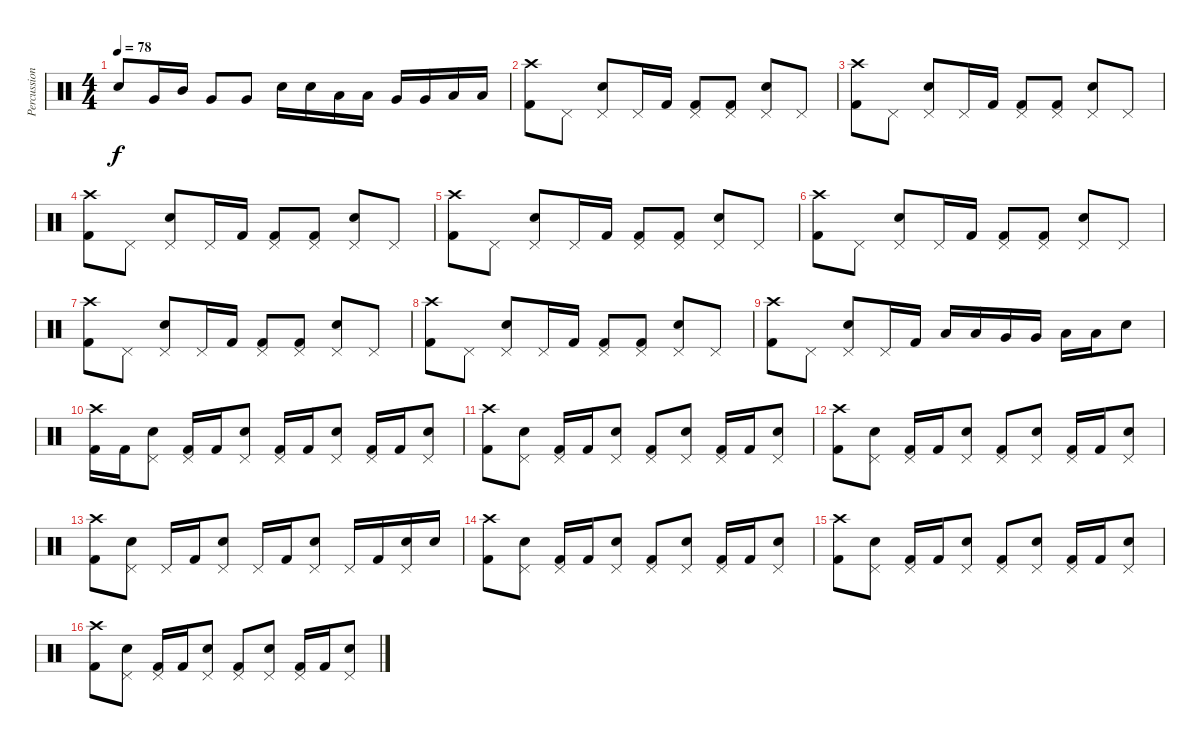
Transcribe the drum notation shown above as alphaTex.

\track ("Percussion" "Percussion") {instrument percussion}
\staff {score}
\articulation defaults
\ts (4 4)
\tempo 78
\clef neutral
\ks c "Snare (hit) 2".8{dy f} "Very Low Tom (hit)".16 "Mid Tom (hit)".16 "Very Low Tom (hit)".8 "Very Low Tom (hit)".8 "Snare (hit) 2".16 "Snare (hit) 2".16 "Low Tom (hit)".16 "Low Tom (hit)".16 "Very Low Tom (hit)".16 "Very Low Tom (hit)".16 "Low Floor Tom (hit)".16 "Low Floor Tom (hit)".16
|
("Crash high (hit)" "Kick (hit) 2").8 "Pedal Hi-Hat (hit)".8 ("Pedal Hi-Hat (hit)" "Snare (hit) 2").8 "Pedal Hi-Hat (hit)".16 "Kick (hit) 2".16 ("Pedal Hi-Hat (hit)" "Kick (hit) 2").8 ("Pedal Hi-Hat (hit)" "Kick (hit) 2").8 ("Pedal Hi-Hat (hit)" "Snare (hit) 2").8 "Pedal Hi-Hat (hit)".8 |
("Crash high (hit)" "Kick (hit) 2").8 "Pedal Hi-Hat (hit)".8 ("Pedal Hi-Hat (hit)" "Snare (hit) 2").8 "Pedal Hi-Hat (hit)".16 "Kick (hit) 2".16 ("Pedal Hi-Hat (hit)" "Kick (hit) 2").8 ("Pedal Hi-Hat (hit)" "Kick (hit) 2").8 ("Pedal Hi-Hat (hit)" "Snare (hit) 2").8 "Pedal Hi-Hat (hit)".8 |
("Crash high (hit)" "Kick (hit) 2").8 "Pedal Hi-Hat (hit)".8 ("Pedal Hi-Hat (hit)" "Snare (hit) 2").8 "Pedal Hi-Hat (hit)".16 "Kick (hit) 2".16 ("Pedal Hi-Hat (hit)" "Kick (hit) 2").8 ("Pedal Hi-Hat (hit)" "Kick (hit) 2").8 ("Pedal Hi-Hat (hit)" "Snare (hit) 2").8 "Pedal Hi-Hat (hit)".8 |
("Crash high (hit)" "Kick (hit) 2").8 "Pedal Hi-Hat (hit)".8 ("Pedal Hi-Hat (hit)" "Snare (hit) 2").8 "Pedal Hi-Hat (hit)".16 "Kick (hit) 2".16 ("Pedal Hi-Hat (hit)" "Kick (hit) 2").8 ("Pedal Hi-Hat (hit)" "Kick (hit) 2").8 ("Pedal Hi-Hat (hit)" "Snare (hit) 2").8 "Pedal Hi-Hat (hit)".8 |
("Crash high (hit)" "Kick (hit) 2").8 "Pedal Hi-Hat (hit)".8 ("Pedal Hi-Hat (hit)" "Snare (hit) 2").8 "Pedal Hi-Hat (hit)".16 "Kick (hit) 2".16 ("Pedal Hi-Hat (hit)" "Kick (hit) 2").8 ("Pedal Hi-Hat (hit)" "Kick (hit) 2").8 ("Pedal Hi-Hat (hit)" "Snare (hit) 2").8 "Pedal Hi-Hat (hit)".8 |
("Crash high (hit)" "Kick (hit) 2").8 "Pedal Hi-Hat (hit)".8 ("Pedal Hi-Hat (hit)" "Snare (hit) 2").8 "Pedal Hi-Hat (hit)".16 "Kick (hit) 2".16 ("Pedal Hi-Hat (hit)" "Kick (hit) 2").8 ("Pedal Hi-Hat (hit)" "Kick (hit) 2").8 ("Pedal Hi-Hat (hit)" "Snare (hit) 2").8 "Pedal Hi-Hat (hit)".8 |
("Crash high (hit)" "Kick (hit) 2").8 "Pedal Hi-Hat (hit)".8 ("Pedal Hi-Hat (hit)" "Snare (hit) 2").8 "Pedal Hi-Hat (hit)".16 "Kick (hit) 2".16 ("Pedal Hi-Hat (hit)" "Kick (hit) 2").8 ("Pedal Hi-Hat (hit)" "Kick (hit) 2").8 ("Pedal Hi-Hat (hit)" "Snare (hit) 2").8 "Pedal Hi-Hat (hit)".8 |
("Crash high (hit)" "Kick (hit) 2").8 "Pedal Hi-Hat (hit)".8 ("Pedal Hi-Hat (hit)" "Snare (hit) 2").8 "Pedal Hi-Hat (hit)".16 "Kick (hit) 2".16 "Low Tom (hit)".16 "Low Tom (hit)".16 "Very Low Tom (hit)".16 "Very Low Tom (hit)".16 "Low Floor Tom (hit)".16 "Low Floor Tom (hit)".16 "Snare (hit) 2".8 |
("Crash high (hit)" "Kick (hit) 2").16 "Kick (hit) 2".16 ("Pedal Hi-Hat (hit)" "Snare (hit) 2").8 ("Pedal Hi-Hat (hit)" "Kick (hit) 2").16 "Kick (hit) 2".16 ("Pedal Hi-Hat (hit)" "Snare (hit) 2").8 ("Pedal Hi-Hat (hit)" "Kick (hit) 2").16 "Kick (hit) 2".16 ("Pedal Hi-Hat (hit)" "Snare (hit) 2").8 ("Pedal Hi-Hat (hit)" "Kick (hit) 2").16 "Kick (hit) 2".16 ("Pedal Hi-Hat (hit)" "Snare (hit) 2").8 |
("Crash high (hit)" "Kick (hit) 2").8 ("Pedal Hi-Hat (hit)" "Snare (hit) 2").8 ("Pedal Hi-Hat (hit)" "Kick (hit) 2").16 "Kick (hit) 2".16 ("Pedal Hi-Hat (hit)" "Snare (hit) 2").8 ("Pedal Hi-Hat (hit)" "Kick (hit) 2").8 ("Pedal Hi-Hat (hit)" "Snare (hit) 2").8 ("Pedal Hi-Hat (hit)" "Kick (hit) 2").16 "Kick (hit) 2".16 ("Pedal Hi-Hat (hit)" "Snare (hit) 2").8 |
("Crash high (hit)" "Kick (hit) 2").8 ("Pedal Hi-Hat (hit)" "Snare (hit) 2").8 ("Pedal Hi-Hat (hit)" "Kick (hit) 2").16 "Kick (hit) 2".16 ("Pedal Hi-Hat (hit)" "Snare (hit) 2").8 ("Pedal Hi-Hat (hit)" "Kick (hit) 2").8 ("Pedal Hi-Hat (hit)" "Snare (hit) 2").8 ("Pedal Hi-Hat (hit)" "Kick (hit) 2").16 "Kick (hit) 2".16 ("Pedal Hi-Hat (hit)" "Snare (hit) 2").8 |
("Crash high (hit)" "Kick (hit) 2").8 ("Pedal Hi-Hat (hit)" "Snare (hit) 2").8 "Pedal Hi-Hat (hit)".16 "Kick (hit) 2".16 ("Pedal Hi-Hat (hit)" "Snare (hit) 2").8 "Pedal Hi-Hat (hit)".16 "Kick (hit) 2".16 ("Pedal Hi-Hat (hit)" "Snare (hit) 2").8 "Pedal Hi-Hat (hit)".16 "Kick (hit) 2".16 ("Pedal Hi-Hat (hit)" "Snare (hit) 2").16 "Snare (hit) 2".16 |
("Crash high (hit)" "Kick (hit) 2").8 ("Pedal Hi-Hat (hit)" "Snare (hit) 2").8 ("Pedal Hi-Hat (hit)" "Kick (hit) 2").16 "Kick (hit) 2".16 ("Pedal Hi-Hat (hit)" "Snare (hit) 2").8 ("Pedal Hi-Hat (hit)" "Kick (hit) 2").8 ("Pedal Hi-Hat (hit)" "Snare (hit) 2").8 ("Pedal Hi-Hat (hit)" "Kick (hit) 2").16 "Kick (hit) 2".16 ("Pedal Hi-Hat (hit)" "Snare (hit) 2").8 |
("Crash high (hit)" "Kick (hit) 2").8 ("Pedal Hi-Hat (hit)" "Snare (hit) 2").8 ("Pedal Hi-Hat (hit)" "Kick (hit) 2").16 "Kick (hit) 2".16 ("Pedal Hi-Hat (hit)" "Snare (hit) 2").8 ("Pedal Hi-Hat (hit)" "Kick (hit) 2").8 ("Pedal Hi-Hat (hit)" "Snare (hit) 2").8 ("Pedal Hi-Hat (hit)" "Kick (hit) 2").16 "Kick (hit) 2".16 ("Pedal Hi-Hat (hit)" "Snare (hit) 2").8 |
("Crash high (hit)" "Kick (hit) 2").8 ("Pedal Hi-Hat (hit)" "Snare (hit) 2").8 ("Pedal Hi-Hat (hit)" "Kick (hit) 2").16 "Kick (hit) 2".16 ("Pedal Hi-Hat (hit)" "Snare (hit) 2").8 ("Pedal Hi-Hat (hit)" "Kick (hit) 2").8 ("Pedal Hi-Hat (hit)" "Snare (hit) 2").8 ("Pedal Hi-Hat (hit)" "Kick (hit) 2").16 "Kick (hit) 2".16 ("Pedal Hi-Hat (hit)" "Snare (hit) 2").8
